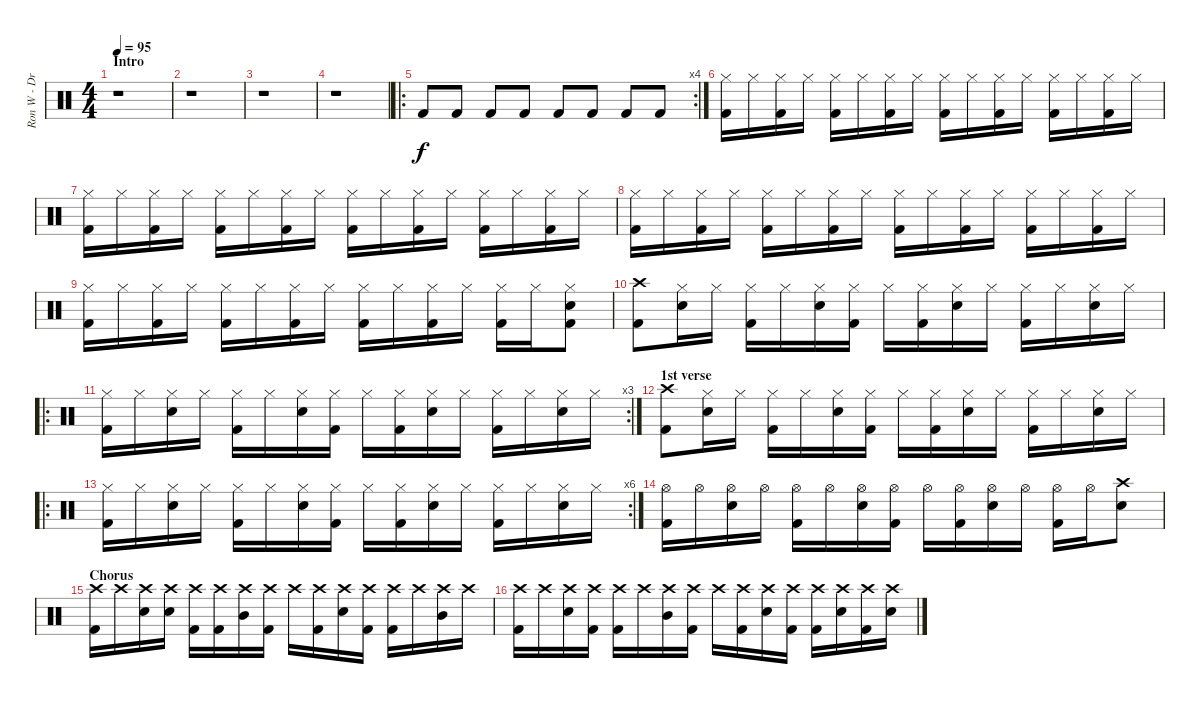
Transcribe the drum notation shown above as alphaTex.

\track ("Ron W - Drums" "Ron W - Dr") {instrument percussion}
\staff {score}
\articulation defaults
\ts (4 4)
\section ("" "Intro")
\tempo 95
\clef neutral
\ks c
r.1{dy f} |
r.1 |
r.1 |
r.1 |
\ro
\rc 4 "Kick (hit) 2".8 "Kick (hit) 2".8 "Kick (hit) 2".8 "Kick (hit) 2".8 "Kick (hit) 2".8 "Kick (hit) 2".8 "Kick (hit) 2".8 "Kick (hit) 2".8
|
("Hi-Hat (closed)" "Kick (hit) 2").16 "Hi-Hat (closed)".16 ("Hi-Hat (closed)" "Kick (hit) 2").16 "Hi-Hat (closed)".16 ("Hi-Hat (closed)" "Kick (hit) 2").16 "Hi-Hat (closed)".16 ("Hi-Hat (closed)" "Kick (hit) 2").16 "Hi-Hat (closed)".16 ("Hi-Hat (closed)" "Kick (hit) 2").16 "Hi-Hat (closed)".16 ("Hi-Hat (closed)" "Kick (hit) 2").16 "Hi-Hat (closed)".16 ("Hi-Hat (closed)" "Kick (hit) 2").16 "Hi-Hat (closed)".16 ("Hi-Hat (closed)" "Kick (hit) 2").16 "Hi-Hat (closed)".16 |
("Hi-Hat (closed)" "Kick (hit) 2").16 "Hi-Hat (closed)".16 ("Hi-Hat (closed)" "Kick (hit) 2").16 "Hi-Hat (closed)".16 ("Hi-Hat (closed)" "Kick (hit) 2").16 "Hi-Hat (closed)".16 ("Hi-Hat (closed)" "Kick (hit) 2").16 "Hi-Hat (closed)".16 ("Hi-Hat (closed)" "Kick (hit) 2").16 "Hi-Hat (closed)".16 ("Hi-Hat (closed)" "Kick (hit) 2").16 "Hi-Hat (closed)".16 ("Hi-Hat (closed)" "Kick (hit) 2").16 "Hi-Hat (closed)".16 ("Hi-Hat (closed)" "Kick (hit) 2").16 "Hi-Hat (closed)".16 |
("Hi-Hat (closed)" "Kick (hit) 2").16 "Hi-Hat (closed)".16 ("Hi-Hat (closed)" "Kick (hit) 2").16 "Hi-Hat (closed)".16 ("Hi-Hat (closed)" "Kick (hit) 2").16 "Hi-Hat (closed)".16 ("Hi-Hat (closed)" "Kick (hit) 2").16 "Hi-Hat (closed)".16 ("Hi-Hat (closed)" "Kick (hit) 2").16 "Hi-Hat (closed)".16 ("Hi-Hat (closed)" "Kick (hit) 2").16 "Hi-Hat (closed)".16 ("Hi-Hat (closed)" "Kick (hit) 2").16 "Hi-Hat (closed)".16 ("Hi-Hat (closed)" "Kick (hit) 2").16 "Hi-Hat (closed)".16 |
("Hi-Hat (closed)" "Kick (hit) 2").16 "Hi-Hat (closed)".16 ("Hi-Hat (closed)" "Kick (hit) 2").16 "Hi-Hat (closed)".16 ("Hi-Hat (closed)" "Kick (hit) 2").16 "Hi-Hat (closed)".16 ("Hi-Hat (closed)" "Kick (hit) 2").16 "Hi-Hat (closed)".16 ("Hi-Hat (closed)" "Kick (hit) 2").16 "Hi-Hat (closed)".16 ("Hi-Hat (closed)" "Kick (hit) 2").16 "Hi-Hat (closed)".16 ("Hi-Hat (closed)" "Kick (hit) 2").16 "Hi-Hat (closed)".16 ("Electric Snare (hit)" "Hi-Hat (closed)" "Kick (hit) 2").8 |
("Crash high (hit)" "Kick (hit) 2").8 ("Hi-Hat (closed)" "Electric Snare (hit)").16 "Hi-Hat (closed)".16 ("Hi-Hat (closed)" "Kick (hit) 2").16 "Hi-Hat (closed)".16 ("Hi-Hat (closed)" "Electric Snare (hit)").16 ("Hi-Hat (closed)" "Kick (hit) 2").16 "Hi-Hat (closed)".16 ("Hi-Hat (closed)" "Kick (hit) 2").16 ("Hi-Hat (closed)" "Electric Snare (hit)").16 "Hi-Hat (closed)".16 ("Hi-Hat (closed)" "Kick (hit) 2").16 "Hi-Hat (closed)".16 ("Hi-Hat (closed)" "Electric Snare (hit)").16 "Hi-Hat (closed)".16 |
\ro
\rc 3
("Hi-Hat (closed)" "Kick (hit) 2").16 "Hi-Hat (closed)".16 ("Hi-Hat (closed)" "Electric Snare (hit)").16 "Hi-Hat (closed)".16 ("Hi-Hat (closed)" "Kick (hit) 2").16 "Hi-Hat (closed)".16 ("Hi-Hat (closed)" "Electric Snare (hit)").16 ("Hi-Hat (closed)" "Kick (hit) 2").16 "Hi-Hat (closed)".16 ("Hi-Hat (closed)" "Kick (hit) 2").16 ("Hi-Hat (closed)" "Electric Snare (hit)").16 "Hi-Hat (closed)".16 ("Hi-Hat (closed)" "Kick (hit) 2").16 "Hi-Hat (closed)".16 ("Hi-Hat (closed)" "Electric Snare (hit)").16 "Hi-Hat (closed)".16 |
\section ("" "1st verse")
("Crash high (hit)" "Kick (hit) 2").8 ("Hi-Hat (closed)" "Electric Snare (hit)").16 "Hi-Hat (closed)".16 ("Hi-Hat (closed)" "Kick (hit) 2").16 "Hi-Hat (closed)".16 ("Hi-Hat (closed)" "Electric Snare (hit)").16 ("Hi-Hat (closed)" "Kick (hit) 2").16 "Hi-Hat (closed)".16 ("Hi-Hat (closed)" "Kick (hit) 2").16 ("Hi-Hat (closed)" "Electric Snare (hit)").16 "Hi-Hat (closed)".16 ("Hi-Hat (closed)" "Kick (hit) 2").16 "Hi-Hat (closed)".16 ("Hi-Hat (closed)" "Electric Snare (hit)").16 "Hi-Hat (closed)".16 |
\ro
\rc 6
("Hi-Hat (closed)" "Kick (hit) 2").16 "Hi-Hat (closed)".16 ("Hi-Hat (closed)" "Electric Snare (hit)").16 "Hi-Hat (closed)".16 ("Hi-Hat (closed)" "Kick (hit) 2").16 "Hi-Hat (closed)".16 ("Hi-Hat (closed)" "Electric Snare (hit)").16 ("Hi-Hat (closed)" "Kick (hit) 2").16 "Hi-Hat (closed)".16 ("Hi-Hat (closed)" "Kick (hit) 2").16 ("Hi-Hat (closed)" "Electric Snare (hit)").16 "Hi-Hat (closed)".16 ("Hi-Hat (closed)" "Kick (hit) 2").16 "Hi-Hat (closed)".16 ("Hi-Hat (closed)" "Electric Snare (hit)").16 "Hi-Hat (closed)".16 |
("Hi-Hat (open)" "Kick (hit) 2").16 "Hi-Hat (open)".16 ("Hi-Hat (open)" "Electric Snare (hit)").16 "Hi-Hat (open)".16 ("Hi-Hat (open)" "Kick (hit) 2").16 "Hi-Hat (open)".16 ("Hi-Hat (open)" "Electric Snare (hit)").16 ("Hi-Hat (open)" "Kick (hit) 2").16 "Hi-Hat (open)".16 ("Hi-Hat (open)" "Kick (hit) 2").16 ("Hi-Hat (open)" "Electric Snare (hit)").16 "Hi-Hat (open)".16 ("Hi-Hat (open)" "Kick (hit) 2").16 "Hi-Hat (open)".16 ("Crash high (hit)" "Electric Snare (hit)").8 |
\section ("" "Chorus")
("Crash high (hit)" "Kick (hit) 2").16 "Crash high (hit)".16 ("Crash high (hit)" "Electric Snare (hit)").16 ("Crash high (hit)" "Electric Snare (hit)").16 ("Crash high (hit)" "Kick (hit) 2").16 ("Crash high (hit)" "Kick (hit) 2").16 ("Mid Tom (hit)" "Crash high (hit)").16 ("Crash high (hit)" "Kick (hit) 2").16 "Crash high (hit)".16 ("Crash high (hit)" "Kick (hit) 2").16 ("Crash high (hit)" "Electric Snare (hit)").16 ("Crash high (hit)" "Kick (hit) 2").16 ("Crash high (hit)" "Kick (hit) 2").16 "Crash high (hit)".16 ("Mid Tom (hit)" "Crash high (hit)").16 "Crash high (hit)".16 |
("Crash high (hit)" "Kick (hit) 2").16 "Crash high (hit)".16 ("Crash high (hit)" "Electric Snare (hit)").16 ("Crash high (hit)" "Kick (hit) 2").16 ("Crash high (hit)" "Kick (hit) 2").16 "Crash high (hit)".16 ("Mid Tom (hit)" "Crash high (hit)").16 ("Crash high (hit)" "Kick (hit) 2").16 "Crash high (hit)".16 ("Crash high (hit)" "Kick (hit) 2").16 ("Crash high (hit)" "Electric Snare (hit)").16 ("Crash high (hit)" "Kick (hit) 2").16 ("Crash high (hit)" "Kick (hit) 2").16 ("Crash high (hit)" "Electric Snare (hit)").16 ("Crash high (hit)" "Kick (hit) 2").16 ("Crash high (hit)" "Electric Snare (hit)").16
